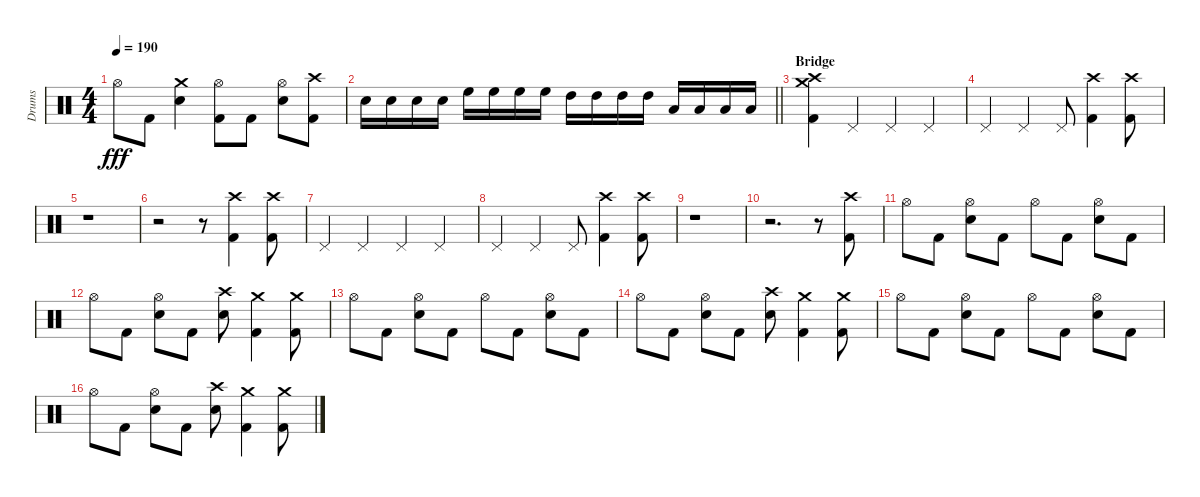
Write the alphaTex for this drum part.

\track ("Drums" "Drums") {instrument percussion}
\staff {score}
\articulation defaults
\ts (4 4)
\tempo 190
\clef neutral
\ks c "Hi-Hat (open)".8{dy fff} "Kick (hit) 2".8
("Electric Snare (hit)" "Crash medium (hit)").4 ("Kick (hit) 2" "Hi-Hat (open)").8 "Kick (hit) 2".8 ("Electric Snare (hit)" "Hi-Hat (open)").8 ("Kick (hit) 2" "Crash high (hit)").8 |
\barLineRight lightlight "Electric Snare (hit)".16 "Electric Snare (hit)".16 "Electric Snare (hit)".16 "Electric Snare (hit)".16 "High Floor Tom (hit)".16 "High Floor Tom (hit)".16 "High Floor Tom (hit)".16 "High Floor Tom (hit)".16 "High Tom (hit)".16 "High Tom (hit)".16 "High Tom (hit)".16 "High Tom (hit)".16 "Low Tom (hit)".16 "Low Tom (hit)".16 "Low Tom (hit)".16 "Low Tom (hit)".16
|
\section ("" "Bridge")
("Kick (hit) 2" "Crash high (hit)" "Crash medium (hit)").4 "Pedal Hi-Hat (hit)".4 "Pedal Hi-Hat (hit)".4 "Pedal Hi-Hat (hit)".4 |
"Pedal Hi-Hat (hit)".4 "Pedal Hi-Hat (hit)".4 "Pedal Hi-Hat (hit)".8 ("Kick (hit) 2" "Crash high (hit)").4 ("Kick (hit) 2" "Crash high (hit)").8 |
r.1 |
r.2 r.8 ("Kick (hit) 2" "Crash high (hit)").4 ("Kick (hit) 2" "Crash high (hit)").8 |
"Pedal Hi-Hat (hit)".4 "Pedal Hi-Hat (hit)".4 "Pedal Hi-Hat (hit)".4 "Pedal Hi-Hat (hit)".4 |
"Pedal Hi-Hat (hit)".4 "Pedal Hi-Hat (hit)".4 "Pedal Hi-Hat (hit)".8 ("Kick (hit) 2" "Crash high (hit)").4 ("Kick (hit) 2" "Crash high (hit)").8 |
r.1 |
r.2{d} r.8 ("Kick (hit) 2" "Crash high (hit)").8 |
"Hi-Hat (open)".8 "Kick (hit) 2".8 ("Electric Snare (hit)" "Hi-Hat (open)").8 "Kick (hit) 2".8 "Hi-Hat (open)".8 "Kick (hit) 2".8 ("Electric Snare (hit)" "Hi-Hat (open)").8 "Kick (hit) 2".8 |
"Hi-Hat (open)".8 "Kick (hit) 2".8 ("Electric Snare (hit)" "Hi-Hat (open)").8 "Kick (hit) 2".8 ("Electric Snare (hit)" "Crash high (hit)").8 ("Kick (hit) 2" "Crash medium (hit)").4 ("Kick (hit) 2" "Crash medium (hit)").8 |
"Hi-Hat (open)".8 "Kick (hit) 2".8 ("Electric Snare (hit)" "Hi-Hat (open)").8 "Kick (hit) 2".8 "Hi-Hat (open)".8 "Kick (hit) 2".8 ("Electric Snare (hit)" "Hi-Hat (open)").8 "Kick (hit) 2".8 |
"Hi-Hat (open)".8 "Kick (hit) 2".8 ("Electric Snare (hit)" "Hi-Hat (open)").8 "Kick (hit) 2".8 ("Electric Snare (hit)" "Crash high (hit)").8 ("Kick (hit) 2" "Crash medium (hit)").4 ("Kick (hit) 2" "Crash medium (hit)").8 |
"Hi-Hat (open)".8 "Kick (hit) 2".8 ("Electric Snare (hit)" "Hi-Hat (open)").8 "Kick (hit) 2".8 "Hi-Hat (open)".8 "Kick (hit) 2".8 ("Electric Snare (hit)" "Hi-Hat (open)").8 "Kick (hit) 2".8 |
"Hi-Hat (open)".8 "Kick (hit) 2".8 ("Electric Snare (hit)" "Hi-Hat (open)").8 "Kick (hit) 2".8 ("Electric Snare (hit)" "Crash high (hit)").8 ("Kick (hit) 2" "Crash medium (hit)").4 ("Kick (hit) 2" "Crash medium (hit)").8
